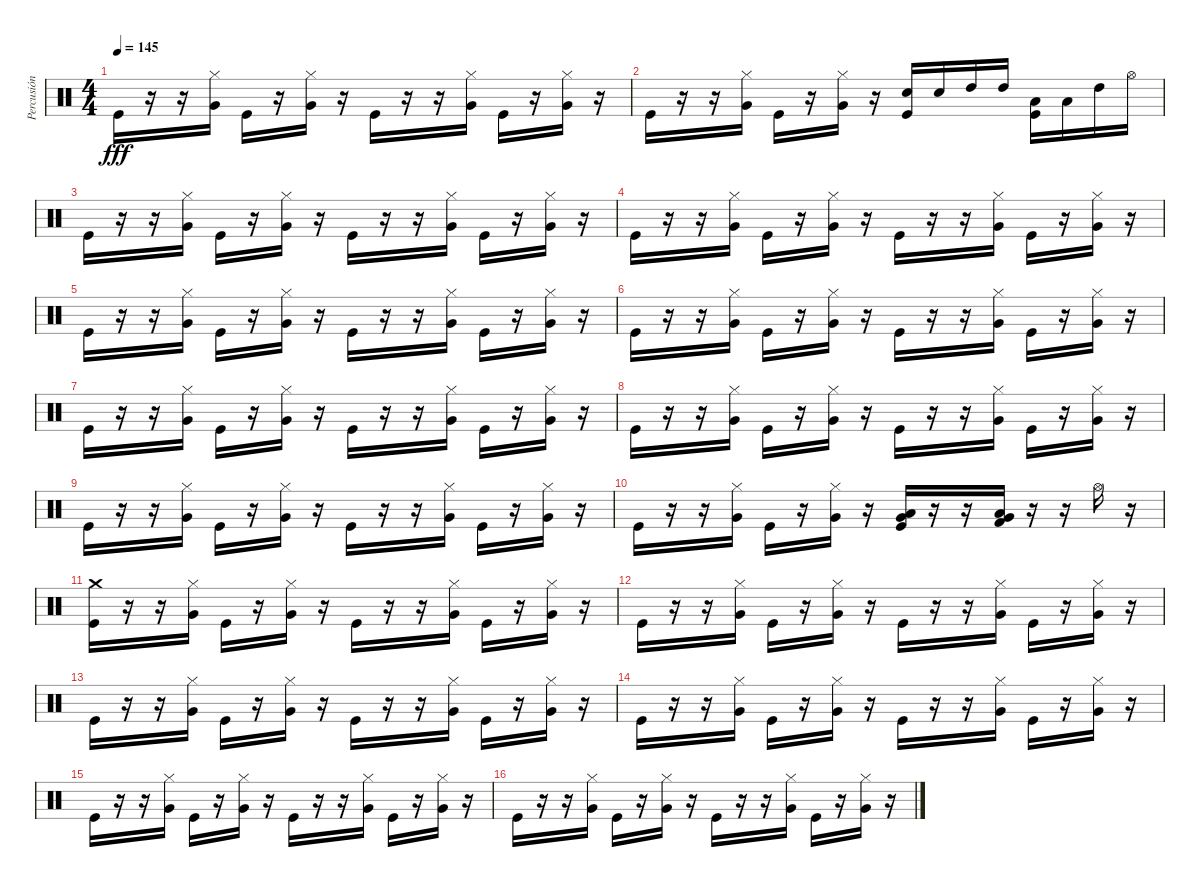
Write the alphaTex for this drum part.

\track ("Percusión" "Percusión") {instrument percussion}
\staff {score}
\articulation defaults
\ts (4 4)
\tempo 145
\clef neutral
\ks c "Kick (hit)".16{dy fff}
r.16 r.16 ("Hi-Hat (closed)" "Very Low Tom (hit)").16 "Kick (hit)".16 r.16 ("Hi-Hat (closed)" "Very Low Tom (hit)").16 r.16 "Kick (hit)".16 r.16 r.16 ("Hi-Hat (closed)" "Very Low Tom (hit)").16 "Kick (hit)".16 r.16 ("Hi-Hat (closed)" "Very Low Tom (hit)").16 r.16 |
"Kick (hit)".16 r.16 r.16 ("Hi-Hat (closed)" "Very Low Tom (hit)").16 "Kick (hit)".16 r.16 ("Hi-Hat (closed)" "Very Low Tom (hit)").16 r.16 ("Electric Snare (hit)" "Kick (hit)").16 "Electric Snare (hit)".16 "High Tom (hit)".16 "High Tom (hit)".16 ("Low Tom (hit)" "Kick (hit)").16 "Low Tom (hit)".16 "High Tom (hit)".16 "Hi-Hat (open)".16 |
"Kick (hit)".16 r.16 r.16 ("Hi-Hat (closed)" "Very Low Tom (hit)").16 "Kick (hit)".16 r.16 ("Hi-Hat (closed)" "Very Low Tom (hit)").16 r.16 "Kick (hit)".16 r.16 r.16 ("Hi-Hat (closed)" "Very Low Tom (hit)").16 "Kick (hit)".16 r.16 ("Hi-Hat (closed)" "Very Low Tom (hit)").16 r.16 |
"Kick (hit)".16 r.16 r.16 ("Hi-Hat (closed)" "Very Low Tom (hit)").16 "Kick (hit)".16 r.16 ("Hi-Hat (closed)" "Very Low Tom (hit)").16 r.16 "Kick (hit)".16 r.16 r.16 ("Hi-Hat (closed)" "Very Low Tom (hit)").16 "Kick (hit)".16 r.16 ("Hi-Hat (closed)" "Very Low Tom (hit)").16 r.16 |
"Kick (hit)".16 r.16 r.16 ("Hi-Hat (closed)" "Very Low Tom (hit)").16 "Kick (hit)".16 r.16 ("Hi-Hat (closed)" "Very Low Tom (hit)").16 r.16 "Kick (hit)".16 r.16 r.16 ("Hi-Hat (closed)" "Very Low Tom (hit)").16 "Kick (hit)".16 r.16 ("Hi-Hat (closed)" "Very Low Tom (hit)").16 r.16 |
"Kick (hit)".16 r.16 r.16 ("Hi-Hat (closed)" "Very Low Tom (hit)").16 "Kick (hit)".16 r.16 ("Hi-Hat (closed)" "Very Low Tom (hit)").16 r.16 "Kick (hit)".16 r.16 r.16 ("Hi-Hat (closed)" "Very Low Tom (hit)").16 "Kick (hit)".16 r.16 ("Hi-Hat (closed)" "Very Low Tom (hit)").16 r.16 |
"Kick (hit)".16 r.16 r.16 ("Hi-Hat (closed)" "Very Low Tom (hit)").16 "Kick (hit)".16 r.16 ("Hi-Hat (closed)" "Very Low Tom (hit)").16 r.16 "Kick (hit)".16 r.16 r.16 ("Hi-Hat (closed)" "Very Low Tom (hit)").16 "Kick (hit)".16 r.16 ("Hi-Hat (closed)" "Very Low Tom (hit)").16 r.16 |
"Kick (hit)".16 r.16 r.16 ("Hi-Hat (closed)" "Very Low Tom (hit)").16 "Kick (hit)".16 r.16 ("Hi-Hat (closed)" "Very Low Tom (hit)").16 r.16 "Kick (hit)".16 r.16 r.16 ("Hi-Hat (closed)" "Very Low Tom (hit)").16 "Kick (hit)".16 r.16 ("Hi-Hat (closed)" "Very Low Tom (hit)").16 r.16 |
"Kick (hit)".16 r.16 r.16 ("Hi-Hat (closed)" "Very Low Tom (hit)").16 "Kick (hit)".16 r.16 ("Hi-Hat (closed)" "Very Low Tom (hit)").16 r.16 "Kick (hit)".16 r.16 r.16 ("Hi-Hat (closed)" "Very Low Tom (hit)").16 "Kick (hit)".16 r.16 ("Hi-Hat (closed)" "Very Low Tom (hit)").16 r.16 |
"Kick (hit)".16 r.16 r.16 ("Hi-Hat (closed)" "Very Low Tom (hit)").16 "Kick (hit)".16 r.16 ("Hi-Hat (closed)" "Very Low Tom (hit)").16 r.16 ("Very Low Tom (hit)" "Low Tom (hit)" "Kick (hit)").16 r.16 r.16 ("Very Low Tom (hit)" "Low Tom (hit)" "Kick (hit) 2").16 r.16 r.16 "Hi-Hat (open)".16 r.16 |
("Crash medium (hit)" "Kick (hit)").16 r.16 r.16 ("Hi-Hat (closed)" "Very Low Tom (hit)").16 "Kick (hit)".16 r.16 ("Hi-Hat (closed)" "Very Low Tom (hit)").16 r.16 "Kick (hit)".16 r.16 r.16 ("Hi-Hat (closed)" "Very Low Tom (hit)").16 "Kick (hit)".16 r.16 ("Hi-Hat (closed)" "Very Low Tom (hit)").16 r.16 |
"Kick (hit)".16 r.16 r.16 ("Hi-Hat (closed)" "Very Low Tom (hit)").16 "Kick (hit)".16 r.16 ("Hi-Hat (closed)" "Very Low Tom (hit)").16 r.16 "Kick (hit)".16 r.16 r.16 ("Hi-Hat (closed)" "Very Low Tom (hit)").16 "Kick (hit)".16 r.16 ("Hi-Hat (closed)" "Very Low Tom (hit)").16 r.16 |
"Kick (hit)".16 r.16 r.16 ("Hi-Hat (closed)" "Very Low Tom (hit)").16 "Kick (hit)".16 r.16 ("Hi-Hat (closed)" "Very Low Tom (hit)").16 r.16 "Kick (hit)".16 r.16 r.16 ("Hi-Hat (closed)" "Very Low Tom (hit)").16 "Kick (hit)".16 r.16 ("Hi-Hat (closed)" "Very Low Tom (hit)").16 r.16 |
"Kick (hit)".16 r.16 r.16 ("Hi-Hat (closed)" "Very Low Tom (hit)").16 "Kick (hit)".16 r.16 ("Hi-Hat (closed)" "Very Low Tom (hit)").16 r.16 "Kick (hit)".16 r.16 r.16 ("Hi-Hat (closed)" "Very Low Tom (hit)").16 "Kick (hit)".16 r.16 ("Hi-Hat (closed)" "Very Low Tom (hit)").16 r.16 |
"Kick (hit)".16 r.16 r.16 ("Hi-Hat (closed)" "Very Low Tom (hit)").16 "Kick (hit)".16 r.16 ("Hi-Hat (closed)" "Very Low Tom (hit)").16 r.16 "Kick (hit)".16 r.16 r.16 ("Hi-Hat (closed)" "Very Low Tom (hit)").16 "Kick (hit)".16 r.16 ("Hi-Hat (closed)" "Very Low Tom (hit)").16 r.16 |
"Kick (hit)".16 r.16 r.16 ("Hi-Hat (closed)" "Very Low Tom (hit)").16 "Kick (hit)".16 r.16 ("Hi-Hat (closed)" "Very Low Tom (hit)").16 r.16 "Kick (hit)".16 r.16 r.16 ("Hi-Hat (closed)" "Very Low Tom (hit)").16 "Kick (hit)".16 r.16 ("Hi-Hat (closed)" "Very Low Tom (hit)").16 r.16
